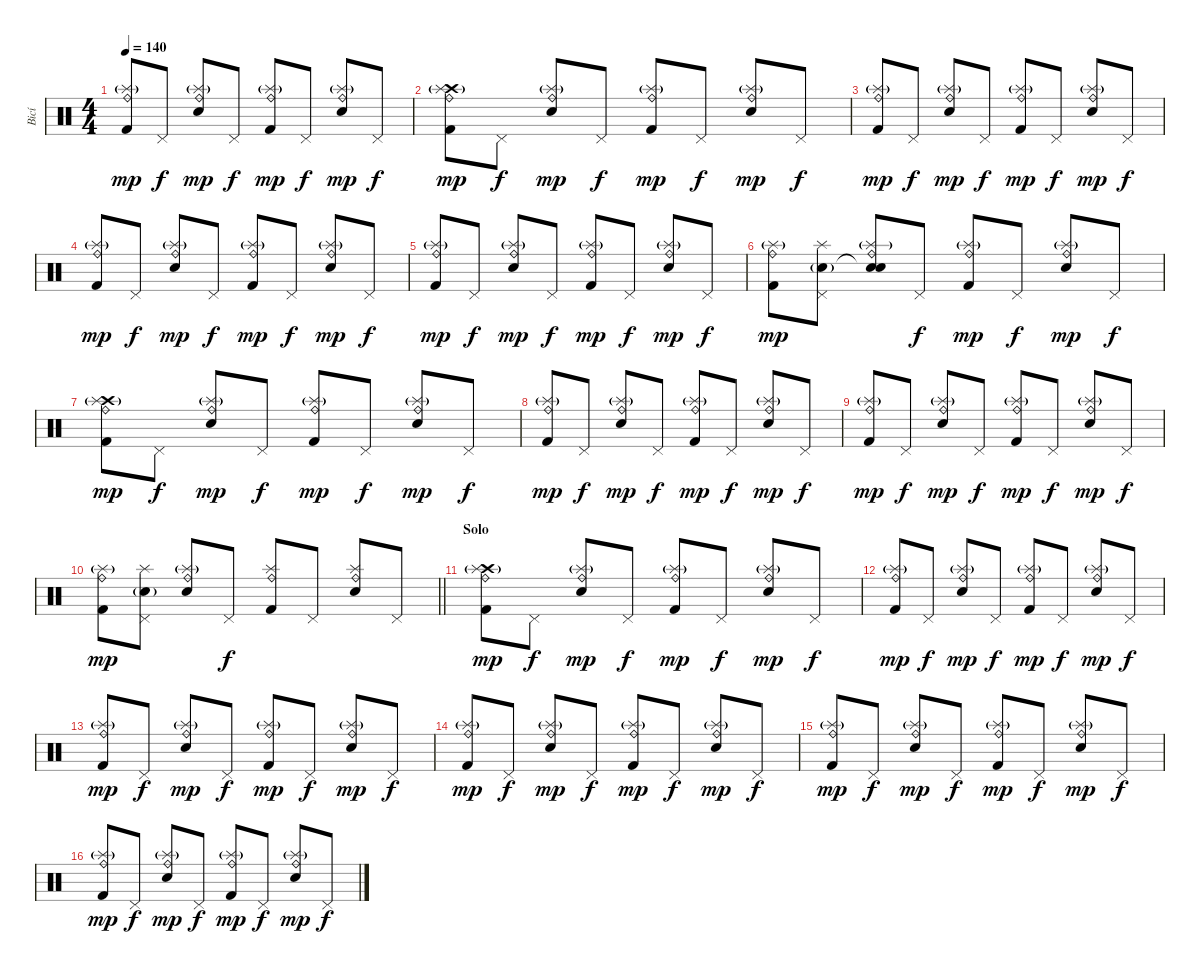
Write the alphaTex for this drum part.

\track ("Bicí" "Bicí") {instrument percussion}
\staff {score}
\articulation defaults
\ts (4 4)
\tempo 140
\clef neutral
\ks c
("Ride (bell)" "Splash (hit)"{g} "Kick (hit) 2").8{dy mp} "Pedal Hi-Hat (hit)".8{dy f} ("Ride (bell)" "Splash (hit)"{g} "Electric Snare (hit)").8{dy mp} "Pedal Hi-Hat (hit)".8{dy f} ("Ride (bell)" "Splash (hit)"{g} "Kick (hit) 2").8{dy mp} "Pedal Hi-Hat (hit)".8{dy f} ("Ride (bell)" "Splash (hit)"{g} "Electric Snare (hit)").8{dy mp} "Pedal Hi-Hat (hit)".8{dy f} |
("Crash high (hit)" "Ride (bell)" "Splash (hit)"{g} "Kick (hit) 2").8{dy mp} "Pedal Hi-Hat (hit)".8{dy f} ("Ride (bell)" "Splash (hit)"{g} "Electric Snare (hit)").8{dy mp} "Pedal Hi-Hat (hit)".8{dy f} ("Ride (bell)" "Splash (hit)"{g} "Kick (hit) 2").8{dy mp} "Pedal Hi-Hat (hit)".8{dy f} ("Ride (bell)" "Splash (hit)"{g} "Electric Snare (hit)").8{dy mp} "Pedal Hi-Hat (hit)".8{dy f} |
("Ride (bell)" "Splash (hit)"{g} "Kick (hit) 2").8{dy mp} "Pedal Hi-Hat (hit)".8{dy f} ("Ride (bell)" "Splash (hit)"{g} "Electric Snare (hit)").8{dy mp} "Pedal Hi-Hat (hit)".8{dy f} ("Ride (bell)" "Splash (hit)"{g} "Kick (hit) 2").8{dy mp} "Pedal Hi-Hat (hit)".8{dy f} ("Ride (bell)" "Splash (hit)"{g} "Electric Snare (hit)").8{dy mp} "Pedal Hi-Hat (hit)".8{dy f} |
("Ride (bell)" "Splash (hit)"{g} "Kick (hit) 2").8{dy mp} "Pedal Hi-Hat (hit)".8{dy f} ("Ride (bell)" "Splash (hit)"{g} "Electric Snare (hit)").8{dy mp} "Pedal Hi-Hat (hit)".8{dy f} ("Ride (bell)" "Splash (hit)"{g} "Kick (hit) 2").8{dy mp} "Pedal Hi-Hat (hit)".8{dy f} ("Ride (bell)" "Splash (hit)"{g} "Electric Snare (hit)").8{dy mp} "Pedal Hi-Hat (hit)".8{dy f} |
("Ride (bell)" "Splash (hit)"{g} "Kick (hit) 2").8{dy mp} "Pedal Hi-Hat (hit)".8{dy f} ("Ride (bell)" "Splash (hit)"{g} "Electric Snare (hit)").8{dy mp} "Pedal Hi-Hat (hit)".8{dy f} ("Ride (bell)" "Splash (hit)"{g} "Kick (hit) 2").8{dy mp} "Pedal Hi-Hat (hit)".8{dy f} ("Ride (bell)" "Splash (hit)"{g} "Electric Snare (hit)").8{dy mp} "Pedal Hi-Hat (hit)".8{dy f} |
("Ride (bell)" "Splash (hit)"{g} "Kick (hit) 2").8{dy mp} ("Pedal Hi-Hat (hit)" "Splash (hit)" "Electric Snare (hit)"{g}).8 ("Ride (bell)" "Splash (hit)"{g} "Snare (hit)"{t} "Electric Snare (hit)").8 "Pedal Hi-Hat (hit)".8{dy f} ("Ride (bell)" "Splash (hit)"{g} "Kick (hit) 2").8{dy mp} "Pedal Hi-Hat (hit)".8{dy f} ("Ride (bell)" "Splash (hit)"{g} "Electric Snare (hit)").8{dy mp} "Pedal Hi-Hat (hit)".8{dy f} |
("Crash high (hit)"{g} "Ride (bell)" "Splash (hit)"{g} "Kick (hit) 2").8{dy mp} "Pedal Hi-Hat (hit)".8{dy f} ("Ride (bell)" "Splash (hit)"{g} "Electric Snare (hit)").8{dy mp} "Pedal Hi-Hat (hit)".8{dy f} ("Ride (bell)" "Splash (hit)"{g} "Kick (hit) 2").8{dy mp} "Pedal Hi-Hat (hit)".8{dy f} ("Ride (bell)" "Splash (hit)"{g} "Electric Snare (hit)").8{dy mp} "Pedal Hi-Hat (hit)".8{dy f} |
("Ride (bell)" "Splash (hit)"{g} "Kick (hit) 2").8{dy mp} "Pedal Hi-Hat (hit)".8{dy f} ("Ride (bell)" "Splash (hit)"{g} "Electric Snare (hit)").8{dy mp} "Pedal Hi-Hat (hit)".8{dy f} ("Ride (bell)" "Splash (hit)"{g} "Kick (hit) 2").8{dy mp} "Pedal Hi-Hat (hit)".8{dy f} ("Ride (bell)" "Splash (hit)"{g} "Electric Snare (hit)").8{dy mp} "Pedal Hi-Hat (hit)".8{dy f} |
("Ride (bell)" "Splash (hit)"{g} "Kick (hit) 2").8{dy mp} "Pedal Hi-Hat (hit)".8{dy f} ("Ride (bell)" "Splash (hit)"{g} "Electric Snare (hit)").8{dy mp} "Pedal Hi-Hat (hit)".8{dy f} ("Ride (bell)" "Splash (hit)"{g} "Kick (hit) 2").8{dy mp} "Pedal Hi-Hat (hit)".8{dy f} ("Ride (bell)" "Splash (hit)"{g} "Electric Snare (hit)").8{dy mp} "Pedal Hi-Hat (hit)".8{dy f} |
\barLineRight lightlight
("Ride (bell)" "Splash (hit)"{g} "Kick (hit) 2").8{dy mp} ("Pedal Hi-Hat (hit)" "Splash (hit)" "Electric Snare (hit)"{g}).8 ("Ride (bell)" "Splash (hit)"{g} "Electric Snare (hit)").8 "Pedal Hi-Hat (hit)".8{dy f} ("Ride (bell)" "Splash (hit)" "Kick (hit) 2").8 "Pedal Hi-Hat (hit)".8 ("Ride (bell)" "Splash (hit)" "Electric Snare (hit)").8 "Pedal Hi-Hat (hit)".8 |
\section ("" "Solo")
("Crash high (hit)" "Ride (bell)" "Splash (hit)"{g} "Kick (hit) 2").8{dy mp} "Pedal Hi-Hat (hit)".8{dy f} ("Ride (bell)" "Splash (hit)"{g} "Electric Snare (hit)").8{dy mp} "Pedal Hi-Hat (hit)".8{dy f} ("Ride (bell)" "Splash (hit)"{g} "Kick (hit) 2").8{dy mp} "Pedal Hi-Hat (hit)".8{dy f} ("Ride (bell)" "Splash (hit)"{g} "Electric Snare (hit)").8{dy mp} "Pedal Hi-Hat (hit)".8{dy f} |
("Ride (bell)" "Splash (hit)"{g} "Kick (hit) 2").8{dy mp} "Pedal Hi-Hat (hit)".8{dy f} ("Ride (bell)" "Splash (hit)"{g} "Electric Snare (hit)").8{dy mp} "Pedal Hi-Hat (hit)".8{dy f} ("Ride (bell)" "Splash (hit)"{g} "Kick (hit) 2").8{dy mp} "Pedal Hi-Hat (hit)".8{dy f} ("Ride (bell)" "Splash (hit)"{g} "Electric Snare (hit)").8{dy mp} "Pedal Hi-Hat (hit)".8{dy f} |
("Ride (bell)" "Splash (hit)"{g} "Kick (hit) 2").8{dy mp} "Pedal Hi-Hat (hit)".8{dy f} ("Ride (bell)" "Splash (hit)"{g} "Electric Snare (hit)").8{dy mp} "Pedal Hi-Hat (hit)".8{dy f} ("Ride (bell)" "Splash (hit)"{g} "Kick (hit) 2").8{dy mp} "Pedal Hi-Hat (hit)".8{dy f} ("Ride (bell)" "Splash (hit)"{g} "Electric Snare (hit)").8{dy mp} "Pedal Hi-Hat (hit)".8{dy f} |
("Ride (bell)" "Splash (hit)"{g} "Kick (hit) 2").8{dy mp} "Pedal Hi-Hat (hit)".8{dy f} ("Ride (bell)" "Splash (hit)"{g} "Electric Snare (hit)").8{dy mp} "Pedal Hi-Hat (hit)".8{dy f} ("Ride (bell)" "Splash (hit)"{g} "Kick (hit) 2").8{dy mp} "Pedal Hi-Hat (hit)".8{dy f} ("Ride (bell)" "Splash (hit)"{g} "Electric Snare (hit)").8{dy mp} "Pedal Hi-Hat (hit)".8{dy f} |
("Ride (bell)" "Splash (hit)"{g} "Kick (hit) 2").8{dy mp} "Pedal Hi-Hat (hit)".8{dy f} ("Ride (bell)" "Splash (hit)"{g} "Electric Snare (hit)").8{dy mp} "Pedal Hi-Hat (hit)".8{dy f} ("Ride (bell)" "Splash (hit)"{g} "Kick (hit) 2").8{dy mp} "Pedal Hi-Hat (hit)".8{dy f} ("Ride (bell)" "Splash (hit)"{g} "Electric Snare (hit)").8{dy mp} "Pedal Hi-Hat (hit)".8{dy f} |
("Ride (bell)" "Splash (hit)"{g} "Kick (hit) 2").8{dy mp} "Pedal Hi-Hat (hit)".8{dy f} ("Ride (bell)" "Splash (hit)"{g} "Electric Snare (hit)").8{dy mp} "Pedal Hi-Hat (hit)".8{dy f} ("Ride (bell)" "Splash (hit)"{g} "Kick (hit) 2").8{dy mp} "Pedal Hi-Hat (hit)".8{dy f} ("Ride (bell)" "Splash (hit)"{g} "Electric Snare (hit)").8{dy mp} "Pedal Hi-Hat (hit)".8{dy f}
